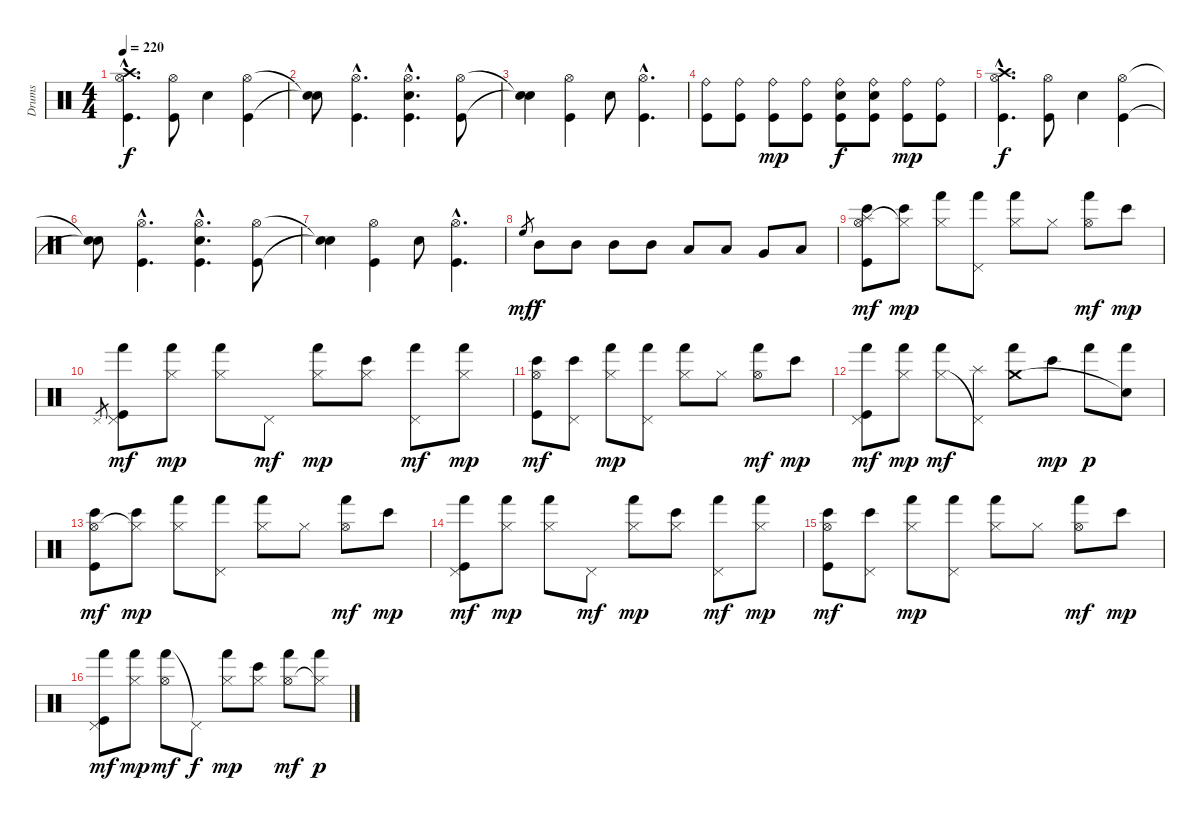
\track ("Drums" "Drums") {instrument percussion}
\staff {score}
\articulation defaults
\ts (4 4)
\tempo 220
\clef neutral
\ks c
("Crash high (hit)"{hac} "Hi-Hat (open)"{hac} "Kick (hit)"{hac}).4{d dy f} ("Hi-Hat (open)" "Kick (hit)").8 "Electric Snare (hit)".4 ("Hi-Hat (open)" "Kick (hit)").4 |
("Snare (hit)"{t} "Snare (hit)"{t}).8 ("Hi-Hat (open)"{hac} "Kick (hit)"{hac}).4{d} ("Hi-Hat (open)"{hac} "Electric Snare (hit)"{hac} "Kick (hit)"{hac}).4{d} ("Hi-Hat (open)" "Kick (hit)").8 |
("Snare (hit)"{t} "Snare (hit)"{t}).4 ("Hi-Hat (open)" "Kick (hit)").4 "Electric Snare (hit)".8 ("Hi-Hat (open)"{hac} "Kick (hit)"{hac}).4{d} |
("Ride (bell)" "Kick (hit)").8 ("Ride (bell)" "Kick (hit)").8 ("Ride (bell)" "Kick (hit)").8{dy mp} ("Ride (bell)" "Kick (hit)").8 ("Ride (bell)" "Electric Snare (hit)" "Kick (hit)").8{dy f} ("Ride (bell)" "Electric Snare (hit)" "Kick (hit)").8 ("Ride (bell)" "Kick (hit)").8{dy mp} ("Ride (bell)" "Kick (hit)").8 |
("Crash high (hit)"{hac} "Hi-Hat (open)"{hac} "Kick (hit)"{hac}).4{d dy f} ("Hi-Hat (open)" "Kick (hit)").8 "Electric Snare (hit)".4 ("Hi-Hat (open)" "Kick (hit)").4 |
("Snare (hit)"{t} "Snare (hit)"{t}).8 ("Hi-Hat (open)"{hac} "Kick (hit)"{hac}).4{d} ("Hi-Hat (open)"{hac} "Electric Snare (hit)"{hac} "Kick (hit)"{hac}).4{d} ("Hi-Hat (open)" "Kick (hit)").8 |
("Snare (hit)"{t} "Snare (hit)"{t}).4 ("Hi-Hat (open)" "Kick (hit)").4 "Electric Snare (hit)".8 ("Hi-Hat (open)"{hac} "Kick (hit)"{hac}).4{d} |
"High Floor Tom (hit)".8{gr dy mf} "Mid Tom (hit)".8{dy f} "Mid Tom (hit)".8 "Mid Tom (hit)".8 "Mid Tom (hit)".8 "Low Tom (hit)".8 "Low Tom (hit)".8 "Very Low Tom (hit)".8 "Low Floor Tom (hit)".8 |
("Bongo High (hit)" "Splash (hit)" "Hi-Hat (open)" "Kick (hit)").8{dy mf} ("Bongo High (hit)" "Hi-Hat (closed)"{t}).8{dy mp} ("Hand (hit)" "Hi-Hat (closed)").8 ("Hand (hit)" "Pedal Hi-Hat (hit)").8 ("Hand (hit)" "Hi-Hat (closed)").8 "Hi-Hat (closed)".8 ("Hand (hit)" "Hi-Hat (open)").8{dy mf} "Bongo High (hit)".8{dy mp} |
"Pedal Hi-Hat (hit)".8{gr} ("Hand (hit)" "Pedal Hi-Hat (hit)" "Kick (hit)").8{dy mf} ("Hand (hit)" "Hi-Hat (closed)").8{dy mp} ("Hand (hit)" "Hi-Hat (closed)").8 "Pedal Hi-Hat (hit)".8{dy mf} ("Hand (hit)" "Hi-Hat (closed)").8{dy mp} ("Bongo High (hit)" "Hi-Hat (closed)").8 ("Hand (hit)" "Pedal Hi-Hat (hit)").8{dy mf} ("Hand (hit)" "Hi-Hat (closed)").8{dy mp} |
("Bongo High (hit)" "Hi-Hat (open)" "Kick (hit)").8{dy mf} ("Bongo High (hit)" "Pedal Hi-Hat (hit)").8 ("Hand (hit)" "Hi-Hat (closed)").8{dy mp} ("Hand (hit)" "Pedal Hi-Hat (hit)").8 ("Hand (hit)" "Hi-Hat (closed)").8 "Hi-Hat (closed)".8 ("Hand (hit)" "Hi-Hat (open)").8{dy mf} "Bongo High (hit)".8{dy mp} |
("Hand (hit)" "Pedal Hi-Hat (hit)" "Kick (hit)").8{dy mf} ("Hand (hit)" "Hi-Hat (closed)").8{dy mp} ("Hand (hit)" "Hi-Hat (closed)").8{dy mf} ("Splash (hit)" "Pedal Hi-Hat (hit)"{t}).8 ("Hand (hit)" "Crash medium (hit)").8 "Bongo High (hit)".8{dy mp} "Hand (hit)".8{dy p} ("Hand (hit)" "Snare (hit)"{t}).8 |
("Bongo High (hit)" "Hi-Hat (open)" "Kick (hit)").8{dy mf} ("Bongo High (hit)" "Hi-Hat (closed)"{t}).8{dy mp} ("Hand (hit)" "Hi-Hat (closed)").8 ("Hand (hit)" "Pedal Hi-Hat (hit)").8 ("Hand (hit)" "Hi-Hat (closed)").8 "Hi-Hat (closed)".8 ("Hand (hit)" "Hi-Hat (open)").8{dy mf} "Bongo High (hit)".8{dy mp} |
("Hand (hit)" "Pedal Hi-Hat (hit)" "Kick (hit)").8{dy mf} ("Hand (hit)" "Hi-Hat (closed)").8{dy mp} ("Hand (hit)" "Hi-Hat (closed)").8 "Pedal Hi-Hat (hit)".8{dy mf} ("Hand (hit)" "Hi-Hat (closed)").8{dy mp} ("Bongo High (hit)" "Hi-Hat (closed)").8 ("Hand (hit)" "Pedal Hi-Hat (hit)").8{dy mf} ("Hand (hit)" "Hi-Hat (closed)").8{dy mp} |
("Bongo High (hit)" "Hi-Hat (open)" "Kick (hit)").8{dy mf} ("Bongo High (hit)" "Pedal Hi-Hat (hit)").8 ("Hand (hit)" "Hi-Hat (closed)").8{dy mp} ("Hand (hit)" "Pedal Hi-Hat (hit)").8 ("Hand (hit)" "Hi-Hat (closed)").8 "Hi-Hat (closed)".8 ("Hand (hit)" "Hi-Hat (open)").8{dy mf} "Bongo High (hit)".8{dy mp} |
("Hand (hit)" "Pedal Hi-Hat (hit)" "Kick (hit)").8{dy mf} ("Hand (hit)" "Hi-Hat (closed)").8{dy mp} ("Hand (hit)" "Hi-Hat (open)").8{dy mf} "Pedal Hi-Hat (hit)"{t}.8{dy f} ("Hand (hit)" "Hi-Hat (closed)").8{dy mp} ("Bongo High (hit)" "Hi-Hat (closed)").8 ("Hand (hit)" "Hi-Hat (open)").8{dy mf} ("Hand (hit)" "Hi-Hat (closed)"{t}).8{dy p}
